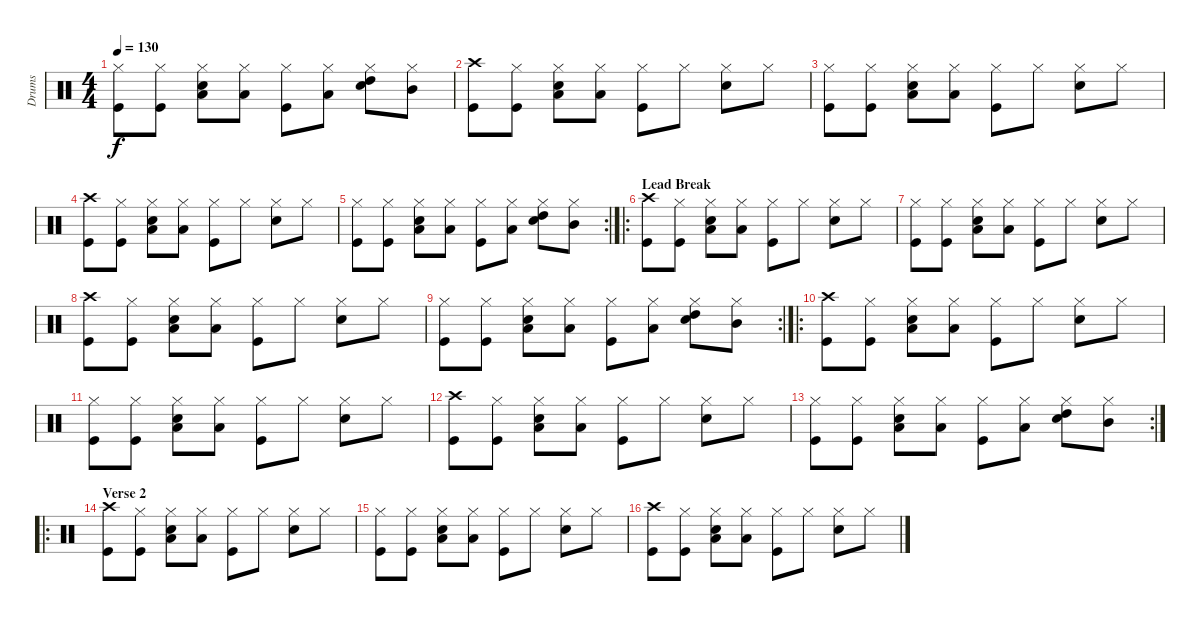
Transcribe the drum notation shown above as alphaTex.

\track ("Drums" "Drums") {instrument percussion}
\staff {score}
\articulation defaults
\ts (4 4)
\tempo 130
\clef neutral
\ks c
("Hi-Hat (closed)" "Kick (hit)").8{dy f} ("Hi-Hat (closed)" "Kick (hit)").8 ("Low Tom (hit)" "Hi-Hat (closed)" "Snare (hit) 2").8 ("Low Tom (hit)" "Hi-Hat (closed)").8 ("Hi-Hat (closed)" "Kick (hit)").8 ("Low Tom (hit)" "Hi-Hat (closed)").8 ("High Tom (hit)" "Hi-Hat (closed)" "Snare (hit) 2").8 ("Mid Tom (hit)" "Hi-Hat (closed)").8 |
("Crash high (hit)" "Kick (hit)").8 ("Hi-Hat (closed)" "Kick (hit)").8 ("Low Tom (hit)" "Hi-Hat (closed)" "Snare (hit) 2").8 ("Low Tom (hit)" "Hi-Hat (closed)").8 ("Hi-Hat (closed)" "Kick (hit)").8 "Hi-Hat (closed)".8 ("Hi-Hat (closed)" "Snare (hit) 2").8 "Hi-Hat (closed)".8 |
("Hi-Hat (closed)" "Kick (hit)").8 ("Hi-Hat (closed)" "Kick (hit)").8 ("Low Tom (hit)" "Hi-Hat (closed)" "Snare (hit) 2").8 ("Low Tom (hit)" "Hi-Hat (closed)").8 ("Hi-Hat (closed)" "Kick (hit)").8 "Hi-Hat (closed)".8 ("Hi-Hat (closed)" "Snare (hit) 2").8 "Hi-Hat (closed)".8 |
("Crash high (hit)" "Kick (hit)").8 ("Hi-Hat (closed)" "Kick (hit)").8 ("Low Tom (hit)" "Hi-Hat (closed)" "Snare (hit) 2").8 ("Low Tom (hit)" "Hi-Hat (closed)").8 ("Hi-Hat (closed)" "Kick (hit)").8 "Hi-Hat (closed)".8 ("Hi-Hat (closed)" "Snare (hit) 2").8 "Hi-Hat (closed)".8 |
\rc 2
("Hi-Hat (closed)" "Kick (hit)").8 ("Hi-Hat (closed)" "Kick (hit)").8 ("Low Tom (hit)" "Hi-Hat (closed)" "Snare (hit) 2").8 ("Low Tom (hit)" "Hi-Hat (closed)").8 ("Hi-Hat (closed)" "Kick (hit)").8 ("Low Tom (hit)" "Hi-Hat (closed)").8 ("High Tom (hit)" "Hi-Hat (closed)" "Snare (hit) 2").8 ("Mid Tom (hit)" "Hi-Hat (closed)").8 |
\ro
\section ("" "Lead Break")
("Crash high (hit)" "Kick (hit)").8 ("Hi-Hat (closed)" "Kick (hit)").8 ("Low Tom (hit)" "Hi-Hat (closed)" "Snare (hit) 2").8 ("Low Tom (hit)" "Hi-Hat (closed)").8 ("Hi-Hat (closed)" "Kick (hit)").8 "Hi-Hat (closed)".8 ("Hi-Hat (closed)" "Snare (hit) 2").8 "Hi-Hat (closed)".8 |
("Hi-Hat (closed)" "Kick (hit)").8 ("Hi-Hat (closed)" "Kick (hit)").8 ("Low Tom (hit)" "Hi-Hat (closed)" "Snare (hit) 2").8 ("Low Tom (hit)" "Hi-Hat (closed)").8 ("Hi-Hat (closed)" "Kick (hit)").8 "Hi-Hat (closed)".8 ("Hi-Hat (closed)" "Snare (hit) 2").8 "Hi-Hat (closed)".8 |
("Crash high (hit)" "Kick (hit)").8 ("Hi-Hat (closed)" "Kick (hit)").8 ("Low Tom (hit)" "Hi-Hat (closed)" "Snare (hit) 2").8 ("Low Tom (hit)" "Hi-Hat (closed)").8 ("Hi-Hat (closed)" "Kick (hit)").8 "Hi-Hat (closed)".8 ("Hi-Hat (closed)" "Snare (hit) 2").8 "Hi-Hat (closed)".8 |
\rc 2
("Hi-Hat (closed)" "Kick (hit)").8 ("Hi-Hat (closed)" "Kick (hit)").8 ("Low Tom (hit)" "Hi-Hat (closed)" "Snare (hit) 2").8 ("Low Tom (hit)" "Hi-Hat (closed)").8 ("Hi-Hat (closed)" "Kick (hit)").8 ("Low Tom (hit)" "Hi-Hat (closed)").8 ("High Tom (hit)" "Hi-Hat (closed)" "Snare (hit) 2").8 ("Mid Tom (hit)" "Hi-Hat (closed)").8 |
\ro
("Crash high (hit)" "Kick (hit)").8 ("Hi-Hat (closed)" "Kick (hit)").8 ("Low Tom (hit)" "Hi-Hat (closed)" "Snare (hit) 2").8 ("Low Tom (hit)" "Hi-Hat (closed)").8 ("Hi-Hat (closed)" "Kick (hit)").8 "Hi-Hat (closed)".8 ("Hi-Hat (closed)" "Snare (hit) 2").8 "Hi-Hat (closed)".8 |
("Hi-Hat (closed)" "Kick (hit)").8 ("Hi-Hat (closed)" "Kick (hit)").8 ("Low Tom (hit)" "Hi-Hat (closed)" "Snare (hit) 2").8 ("Low Tom (hit)" "Hi-Hat (closed)").8 ("Hi-Hat (closed)" "Kick (hit)").8 "Hi-Hat (closed)".8 ("Hi-Hat (closed)" "Snare (hit) 2").8 "Hi-Hat (closed)".8 |
("Crash high (hit)" "Kick (hit)").8 ("Hi-Hat (closed)" "Kick (hit)").8 ("Low Tom (hit)" "Hi-Hat (closed)" "Snare (hit) 2").8 ("Low Tom (hit)" "Hi-Hat (closed)").8 ("Hi-Hat (closed)" "Kick (hit)").8 "Hi-Hat (closed)".8 ("Hi-Hat (closed)" "Snare (hit) 2").8 "Hi-Hat (closed)".8 |
\rc 2
("Hi-Hat (closed)" "Kick (hit)").8 ("Hi-Hat (closed)" "Kick (hit)").8 ("Low Tom (hit)" "Hi-Hat (closed)" "Snare (hit) 2").8 ("Low Tom (hit)" "Hi-Hat (closed)").8 ("Hi-Hat (closed)" "Kick (hit)").8 ("Low Tom (hit)" "Hi-Hat (closed)").8 ("High Tom (hit)" "Hi-Hat (closed)" "Snare (hit) 2").8 ("Mid Tom (hit)" "Hi-Hat (closed)").8 |
\ro
\section ("" "Verse 2")
("Crash high (hit)" "Kick (hit)").8 ("Hi-Hat (closed)" "Kick (hit)").8 ("Low Tom (hit)" "Hi-Hat (closed)" "Snare (hit) 2").8 ("Low Tom (hit)" "Hi-Hat (closed)").8 ("Hi-Hat (closed)" "Kick (hit)").8 "Hi-Hat (closed)".8 ("Hi-Hat (closed)" "Snare (hit) 2").8 "Hi-Hat (closed)".8 |
("Hi-Hat (closed)" "Kick (hit)").8 ("Hi-Hat (closed)" "Kick (hit)").8 ("Low Tom (hit)" "Hi-Hat (closed)" "Snare (hit) 2").8 ("Low Tom (hit)" "Hi-Hat (closed)").8 ("Hi-Hat (closed)" "Kick (hit)").8 "Hi-Hat (closed)".8 ("Hi-Hat (closed)" "Snare (hit) 2").8 "Hi-Hat (closed)".8 |
("Crash high (hit)" "Kick (hit)").8 ("Hi-Hat (closed)" "Kick (hit)").8 ("Low Tom (hit)" "Hi-Hat (closed)" "Snare (hit) 2").8 ("Low Tom (hit)" "Hi-Hat (closed)").8 ("Hi-Hat (closed)" "Kick (hit)").8 "Hi-Hat (closed)".8 ("Hi-Hat (closed)" "Snare (hit) 2").8 "Hi-Hat (closed)".8
